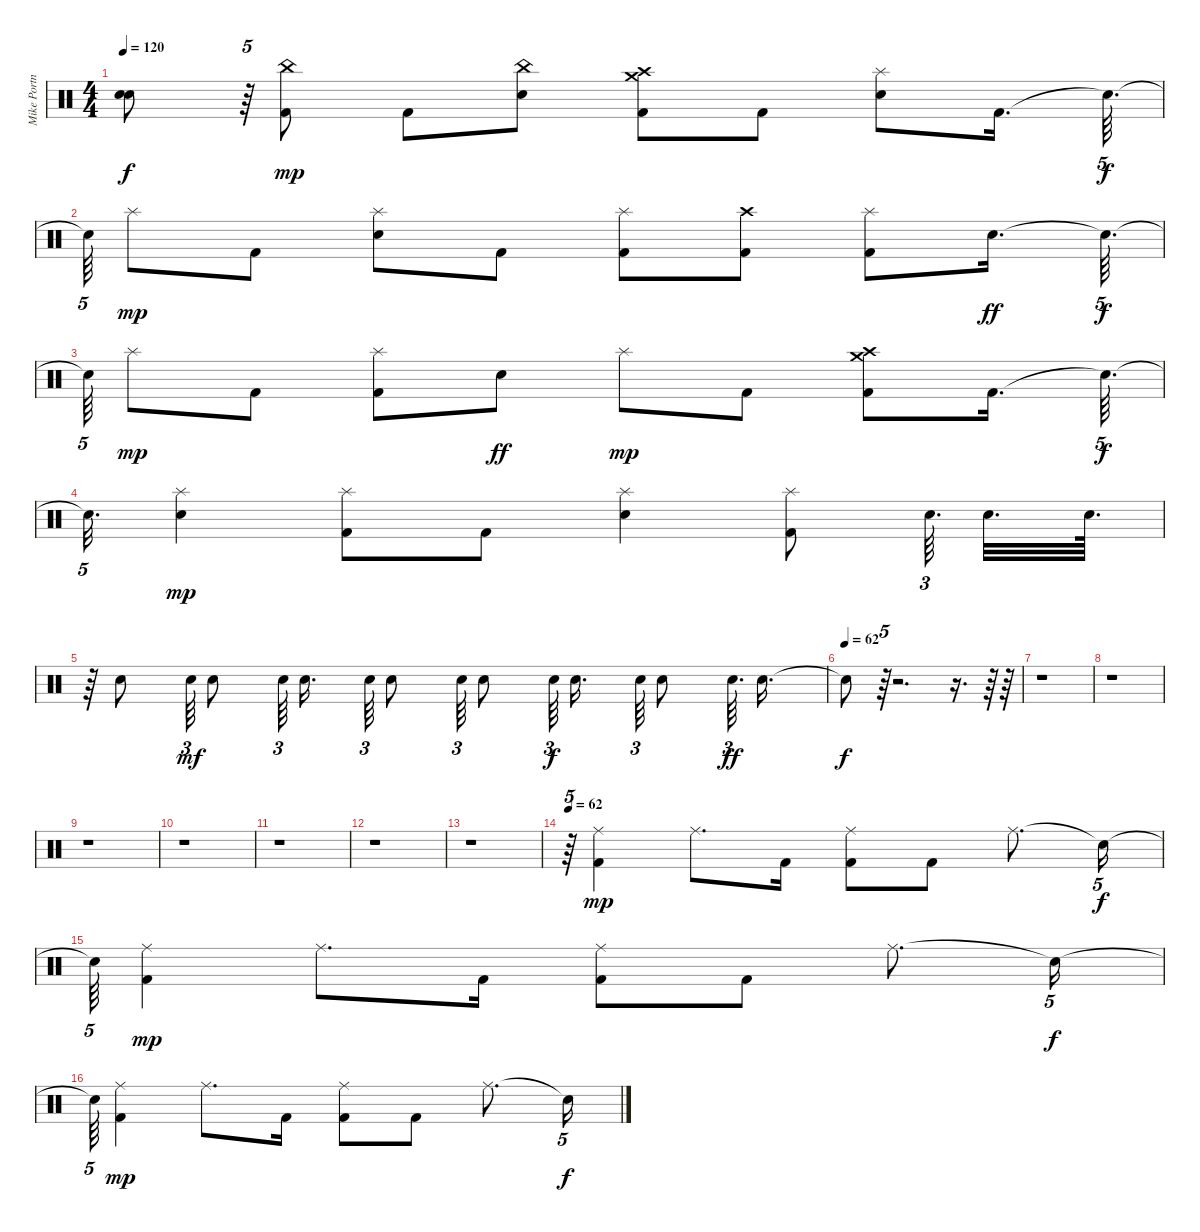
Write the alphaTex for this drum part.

\track ("Mike Portnoy" "Mike Portn") {instrument percussion}
\staff {score}
\articulation defaults
\ts (4 4)
\tempo 120
\clef neutral
\ks c
("Snare (hit)"{t} "Snare (hit)"{t}).8{dy f} r.64{tu (5 4)} ("Kick (hit) 2" "China (hit)").8{dy mp} "Kick (hit) 2".8 ("Electric Snare (hit)" "China (hit)").8 ("Kick (hit) 2" "Crash medium (hit)" "Crash high (hit)").8 "Kick (hit) 2".8 ("Electric Snare (hit)" "Splash (hit)").8 "Kick (hit) 2".16{d} "Snare (hit)"{t}.64{d tu (5 4) dy f} |
"Snare (hit)"{t}.64{tu (5 4)} "Splash (hit)".8{dy mp} "Kick (hit) 2".8 ("Electric Snare (hit)" "Splash (hit)").8 "Kick (hit) 2".8 ("Kick (hit) 2" "Splash (hit)").8 ("Kick (hit) 2" "Crash high (hit)").8 ("Kick (hit) 2" "Splash (hit)").8 "Electric Snare (hit)".16{d dy ff} "Snare (hit)"{t}.64{d tu (5 4) dy f} |
"Snare (hit)"{t}.64{tu (5 4)} "Splash (hit)".8{dy mp} "Kick (hit) 2".8 ("Kick (hit) 2" "Splash (hit)").8 "Electric Snare (hit)".8{dy ff} "Splash (hit)".8{dy mp} "Kick (hit) 2".8 ("Kick (hit) 2" "Crash medium (hit)" "Crash high (hit)").8 "Kick (hit) 2".16{d} "Snare (hit)"{t}.64{d tu (5 4) dy f} |
"Snare (hit)"{t}.32{d tu (5 4)} ("Electric Snare (hit)" "Splash (hit)").4{dy mp} ("Kick (hit) 2" "Splash (hit)").8 "Kick (hit) 2".8 ("Electric Snare (hit)" "Splash (hit)").4 ("Kick (hit) 2" "Splash (hit)").8 "Electric Snare (hit)".64{d tu (3 2)} "Electric Snare (hit)".32{d} "Electric Snare (hit)".64{d} |
r.64 "Electric Snare (hit)".8 "Electric Snare (hit)".64{tu (3 2) dy mf} "Electric Snare (hit)".8 "Electric Snare (hit)".64{tu (3 2)} "Electric Snare (hit)".16{d} "Electric Snare (hit)".64{tu (3 2)} "Electric Snare (hit)".8 "Electric Snare (hit)".64{tu (3 2)} "Electric Snare (hit)".8 "Electric Snare (hit)".64{tu (3 2) dy f} "Electric Snare (hit)".16{d} "Electric Snare (hit)".64{tu (3 2)} "Electric Snare (hit)".8 "Electric Snare (hit)".64{d tu (3 2) dy ff} "Electric Snare (hit)".16{d} |
\tempo (62)
"Snare (hit)"{t}.8{dy f} r.64{tu (5 4)} r.2{d} r.16{d} r.64 r.64 |
r.1 |
r.1 |
r.1 |
r.1 |
r.1 |
r.1 |
r.1 |
\tempo 62
r.64{tu (5 4)} ("Kick (hit) 2" "Ride (middle)").4{dy mp} "Ride (middle)".8{d} "Kick (hit) 2".16 ("Kick (hit) 2" "Ride (middle)").8 "Kick (hit) 2".8 "Ride (middle)".8{d} "Snare (hit)"{t}.16{tu (5 4) dy f} |
"Snare (hit)"{t}.64{tu (5 4)} ("Kick (hit) 2" "Ride (middle)").4{dy mp} "Ride (middle)".8{d} "Kick (hit) 2".16 ("Kick (hit) 2" "Ride (middle)").8 "Kick (hit) 2".8 "Ride (middle)".8{d} "Snare (hit)"{t}.16{tu (5 4) dy f} |
"Snare (hit)"{t}.64{tu (5 4)} ("Kick (hit) 2" "Ride (middle)").4{dy mp} "Ride (middle)".8{d} "Kick (hit) 2".16 ("Kick (hit) 2" "Ride (middle)").8 "Kick (hit) 2".8 "Ride (middle)".8{d} "Snare (hit)"{t}.16{tu (5 4) dy f}
